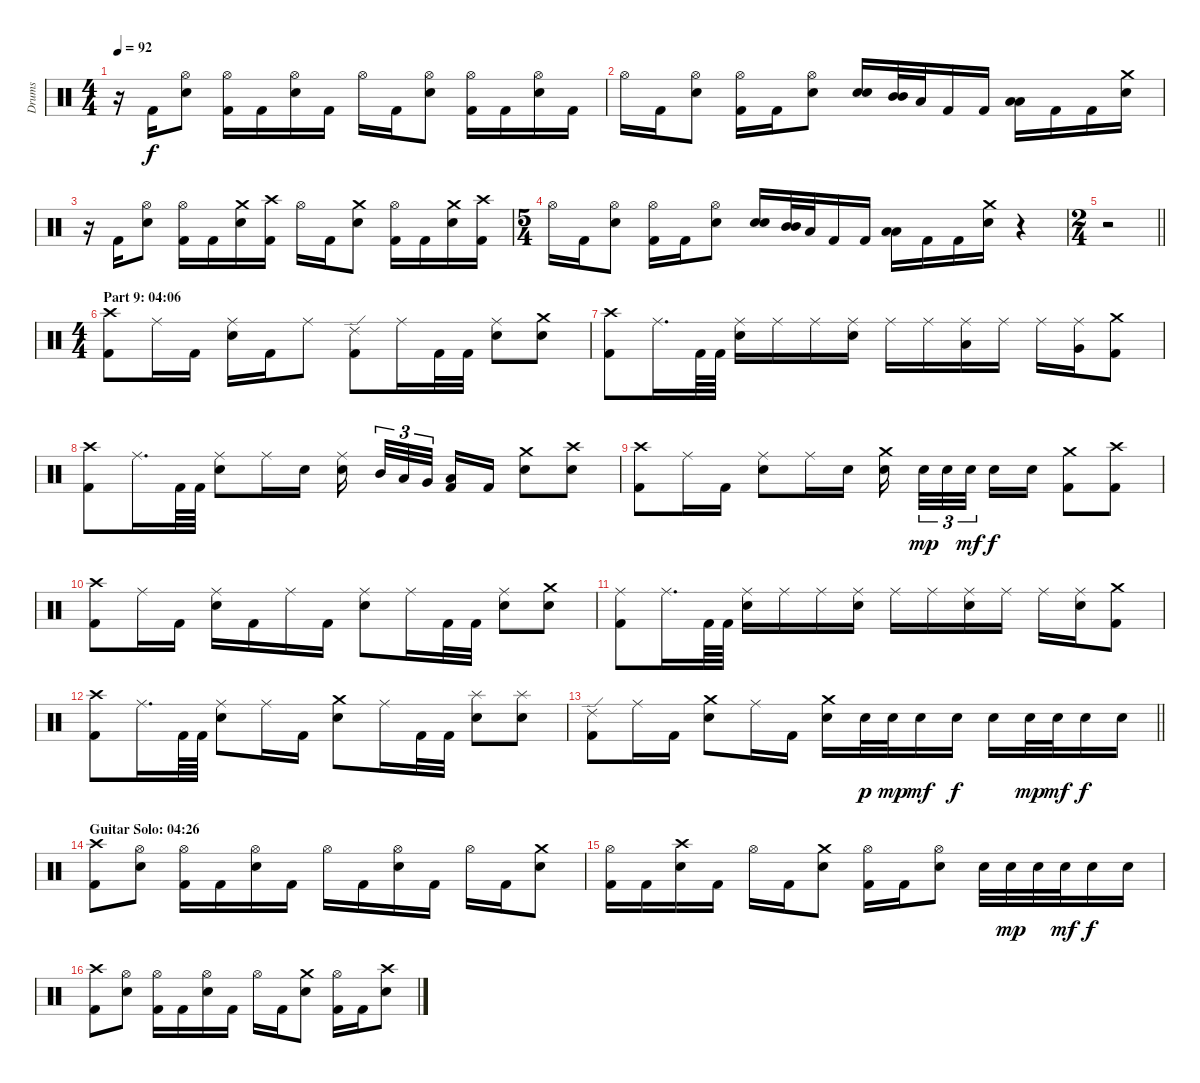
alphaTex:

\track ("Drums" "Drums") {instrument percussion}
\staff {score}
\articulation defaults
\ts (4 4)
\tempo 92
\clef neutral
\ks c
r.16{dy f} "Kick (hit) 2".16 ("Hi-Hat (open)" "Electric Snare (hit)").8 ("Hi-Hat (open)" "Kick (hit) 2").16 "Kick (hit) 2".16 ("Hi-Hat (open)" "Electric Snare (hit)").16 "Kick (hit) 2".16 "Hi-Hat (open)".16 "Kick (hit) 2".16 ("Hi-Hat (open)" "Electric Snare (hit)").8 ("Hi-Hat (open)" "Kick (hit) 2").16 "Kick (hit) 2".16 ("Hi-Hat (open)" "Electric Snare (hit)").16 "Kick (hit) 2".16 |
"Hi-Hat (open)".16 "Kick (hit) 2".16 ("Hi-Hat (open)" "Electric Snare (hit)").8 ("Hi-Hat (open)" "Kick (hit) 2").16 "Kick (hit) 2".16 ("Hi-Hat (open)" "Electric Snare (hit)").8 ("Electric Snare (hit)" "Electric Snare (hit)").16{bd 30} ("Mid Tom (hit)" "Mid Tom (hit)").32{bd 30} "Low Tom (hit)".32 "Kick (hit) 2".16 "Kick (hit) 2".16 ("Low Tom (hit)" "Low Tom (hit)").16{bd 30} "Kick (hit) 2".16 "Kick (hit) 2".16 ("Crash medium (hit)" "Electric Snare (hit)").16 |
r.16 "Kick (hit) 2".16 ("Hi-Hat (open)" "Electric Snare (hit)").8 ("Hi-Hat (open)" "Kick (hit) 2").16 "Kick (hit) 2".16 ("Crash medium (hit)" "Electric Snare (hit)").16 ("Crash high (hit)" "Kick (hit) 2").16 "Hi-Hat (open)".16 "Kick (hit) 2".16 ("Crash medium (hit)" "Electric Snare (hit)").8 ("Hi-Hat (open)" "Kick (hit) 2").16 "Kick (hit) 2".16 ("Crash medium (hit)" "Electric Snare (hit)").16 ("Crash high (hit)" "Kick (hit) 2").16 |
\ts (5 4)
"Hi-Hat (open)".16 "Kick (hit) 2".16 ("Hi-Hat (open)" "Electric Snare (hit)").8 ("Hi-Hat (open)" "Kick (hit) 2").16 "Kick (hit) 2".16 ("Hi-Hat (open)" "Electric Snare (hit)").8 ("Electric Snare (hit)" "Electric Snare (hit)").16{bd 30} ("Mid Tom (hit)" "Mid Tom (hit)").32{bd 30} "Low Tom (hit)".32 "Kick (hit) 2".16 "Kick (hit) 2".16 ("Low Tom (hit)" "Low Tom (hit)").16{bd 30} "Kick (hit) 2".16 "Kick (hit) 2".16 ("Crash medium (hit)" "Electric Snare (hit)").16 r.4 |
\ts (2 4)
\barLineRight lightlight
r.2 |
\ts (4 4)
\section ("" "Part 9: 04:06")
("Crash high (hit)" "Kick (hit) 2").8 "Ride (middle)".16 "Kick (hit) 2".16 ("Ride (middle)" "Electric Snare (hit)").16 "Kick (hit) 2".16 "Ride (middle)".8 ("Ride (edge) 2" "Kick (hit) 2").8 "Ride (middle)".16 "Kick (hit) 2".32 "Kick (hit) 2".32 ("Ride (middle)" "Electric Snare (hit)").8 ("Crash medium (hit)" "Electric Snare (hit)").8 |
("Crash high (hit)" "Kick (hit) 2").8 "Ride (middle)".16{d} "Kick (hit) 2".64 "Kick (hit) 2".64 ("Ride (middle)" "Electric Snare (hit)").16 "Ride (middle)".16 "Ride (middle)".16 ("Ride (middle)" "Electric Snare (hit)").16 "Ride (middle)".16 "Ride (middle)".16 ("Ride (middle)" "Low Tom (hit)").16 "Ride (middle)".16 "Ride (middle)".16 ("Ride (middle)" "Very Low Tom (hit)").16 ("Crash medium (hit)" "Kick (hit) 2").8 |
("Crash high (hit)" "Kick (hit) 2").8 "Ride (middle)".16{d} "Kick (hit) 2".64 "Kick (hit) 2".64 ("Ride (middle)" "Electric Snare (hit)").8 "Ride (middle)".16 "Electric Snare (hit)".16 ("Ride (middle)" "Electric Snare (hit)").16{beam splitsecondary} "Mid Tom (hit)".32{tu (3 2)} "Low Tom (hit)".32{tu (3 2)} "Very Low Tom (hit)".32{tu (3 2) beam splitsecondary} ("Low Floor Tom (hit)" "Kick (hit) 2").16 "Kick (hit) 2".16 ("Crash medium (hit)" "Electric Snare (hit)").8 ("Crash high (hit)" "Electric Snare (hit)").8 |
("Crash high (hit)" "Kick (hit) 2").8 "Ride (middle)".16 "Kick (hit) 2".16 ("Ride (middle)" "Electric Snare (hit)").8 "Ride (middle)".16 "Electric Snare (hit)".16 ("Crash medium (hit)" "Electric Snare (hit)").16{beam splitsecondary} "Electric Snare (hit)".32{tu (3 2) dy mp} "Electric Snare (hit)".32{tu (3 2)} "Electric Snare (hit)".32{tu (3 2) dy mf beam splitsecondary} "Electric Snare (hit)".16{dy f} "Electric Snare (hit)".16 ("Crash medium (hit)" "Kick (hit) 2").8 ("Crash high (hit)" "Kick (hit) 2").8 |
("Crash high (hit)" "Kick (hit) 2").8 "Ride (middle)".16 "Kick (hit) 2".16 ("Ride (middle)" "Electric Snare (hit)").16 "Kick (hit) 2".16 "Ride (middle)".16 "Kick (hit) 2".16 ("Ride (middle)" "Electric Snare (hit)").8 "Ride (middle)".16 "Kick (hit) 2".32 "Kick (hit) 2".32 ("Ride (middle)" "Electric Snare (hit)").8 ("Crash medium (hit)" "Electric Snare (hit)").8 |
("Ride (middle)" "Kick (hit) 2").8 "Ride (middle)".16{d} "Kick (hit) 2".64 "Kick (hit) 2".64 ("Ride (middle)" "Electric Snare (hit)").16 "Ride (middle)".16 "Ride (middle)".16 ("Ride (middle)" "Electric Snare (hit)").16 "Ride (middle)".16 "Ride (middle)".16 ("Ride (middle)" "Electric Snare (hit)").16 "Ride (middle)".16 "Ride (middle)".16 ("Ride (middle)" "Electric Snare (hit)").16 ("Crash medium (hit)" "Kick (hit) 2").8 |
("Crash high (hit)" "Kick (hit) 2").8 "Ride (middle)".16{d} "Kick (hit) 2".64 "Kick (hit) 2".64 ("Ride (middle)" "Electric Snare (hit)").8 "Ride (middle)".16 "Kick (hit) 2".16 ("Crash medium (hit)" "Electric Snare (hit)").8 "Ride (middle)".16 "Kick (hit) 2".32 "Kick (hit) 2".32 ("Splash (hit)" "Electric Snare (hit)").8 ("Splash (hit)" "Electric Snare (hit)").8 |
\barLineRight lightlight
("Ride (edge) 2" "Kick (hit) 2").8 "Ride (middle)".16 "Kick (hit) 2".16 ("Crash medium (hit)" "Electric Snare (hit)").8 "Ride (middle)".16 "Kick (hit) 2".16 ("Crash medium (hit)" "Electric Snare (hit)").16 "Electric Snare (hit)".32{dy p} "Electric Snare (hit)".32{dy mp} "Electric Snare (hit)".16{dy mf} "Electric Snare (hit)".16{dy f} "Electric Snare (hit)".16 "Electric Snare (hit)".32{dy mp} "Electric Snare (hit)".32{dy mf} "Electric Snare (hit)".16{dy f} "Electric Snare (hit)".16 |
\section ("" "Guitar Solo: 04:26")
("Crash high (hit)" "Kick (hit) 2").8 ("Hi-Hat (open)" "Electric Snare (hit)").8 ("Hi-Hat (open)" "Kick (hit) 2").16 "Kick (hit) 2".16 ("Hi-Hat (open)" "Electric Snare (hit)").16 "Kick (hit) 2".16 "Hi-Hat (open)".16 "Kick (hit) 2".16 ("Hi-Hat (open)" "Electric Snare (hit)").16 "Kick (hit) 2".16 "Hi-Hat (open)".16 "Kick (hit) 2".16 ("Crash medium (hit)" "Electric Snare (hit)").8 |
("Hi-Hat (open)" "Kick (hit) 2").16 "Kick (hit) 2".16 ("Crash high (hit)" "Electric Snare (hit)").16 "Kick (hit) 2".16 "Hi-Hat (open)".16 "Kick (hit) 2".16 ("Crash medium (hit)" "Electric Snare (hit)").8 ("Hi-Hat (open)" "Kick (hit) 2").16 "Kick (hit) 2".16 ("Hi-Hat (open)" "Electric Snare (hit)").8 "Electric Snare (hit)".32 "Electric Snare (hit)".32{dy mp} "Electric Snare (hit)".32 "Electric Snare (hit)".32{dy mf} "Electric Snare (hit)".16{dy f} "Electric Snare (hit)".16 |
("Crash high (hit)" "Kick (hit) 2").8 ("Hi-Hat (open)" "Electric Snare (hit)").8 ("Hi-Hat (open)" "Kick (hit) 2").16 "Kick (hit) 2".16 ("Hi-Hat (open)" "Electric Snare (hit)").16 "Kick (hit) 2".16 "Hi-Hat (open)".16 "Kick (hit) 2".16 ("Crash medium (hit)" "Electric Snare (hit)").8 ("Hi-Hat (open)" "Kick (hit) 2").16 "Kick (hit) 2".16 ("Crash high (hit)" "Electric Snare (hit)").8
